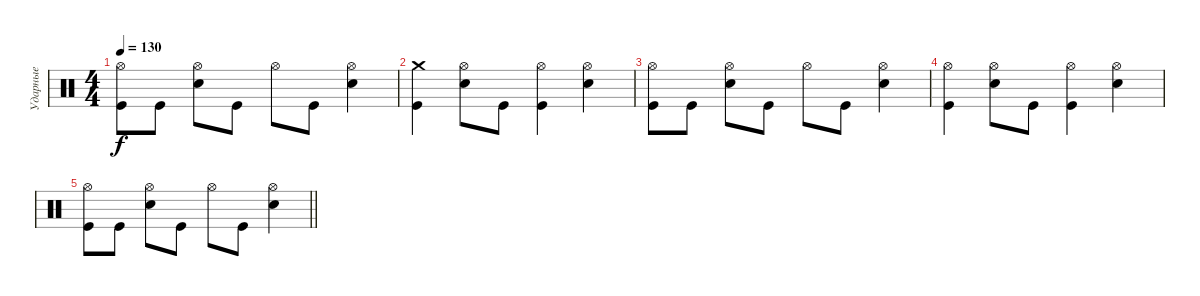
\track ("Ударные" "Ударные") {instrument percussion}
\staff {score}
\articulation defaults
\ts (4 4)
\tempo 130
\clef neutral
\ks c
("Kick (hit)" "Hi-Hat (open)").8{dy f} "Kick (hit)".8 ("Snare (hit) 2" "Hi-Hat (open)").8 "Kick (hit)".8 "Hi-Hat (open)".8 "Kick (hit)".8 ("Snare (hit) 2" "Hi-Hat (open)").4 |
("Kick (hit)" "Crash medium (hit)").4 ("Snare (hit) 2" "Hi-Hat (open)").8 "Kick (hit)".8 ("Kick (hit)" "Hi-Hat (open)").4 ("Snare (hit) 2" "Hi-Hat (open)").4 |
("Kick (hit)" "Hi-Hat (open)").8 "Kick (hit)".8 ("Snare (hit) 2" "Hi-Hat (open)").8 "Kick (hit)".8 "Hi-Hat (open)".8 "Kick (hit)".8 ("Snare (hit) 2" "Hi-Hat (open)").4 |
("Kick (hit)" "Hi-Hat (open)").4 ("Snare (hit) 2" "Hi-Hat (open)").8 "Kick (hit)".8 ("Kick (hit)" "Hi-Hat (open)").4 ("Snare (hit) 2" "Hi-Hat (open)").4 |
\barLineRight lightlight
("Kick (hit)" "Hi-Hat (open)").8 "Kick (hit)".8 ("Snare (hit) 2" "Hi-Hat (open)").8 "Kick (hit)".8 "Hi-Hat (open)".8 "Kick (hit)".8 ("Snare (hit) 2" "Hi-Hat (open)").4
